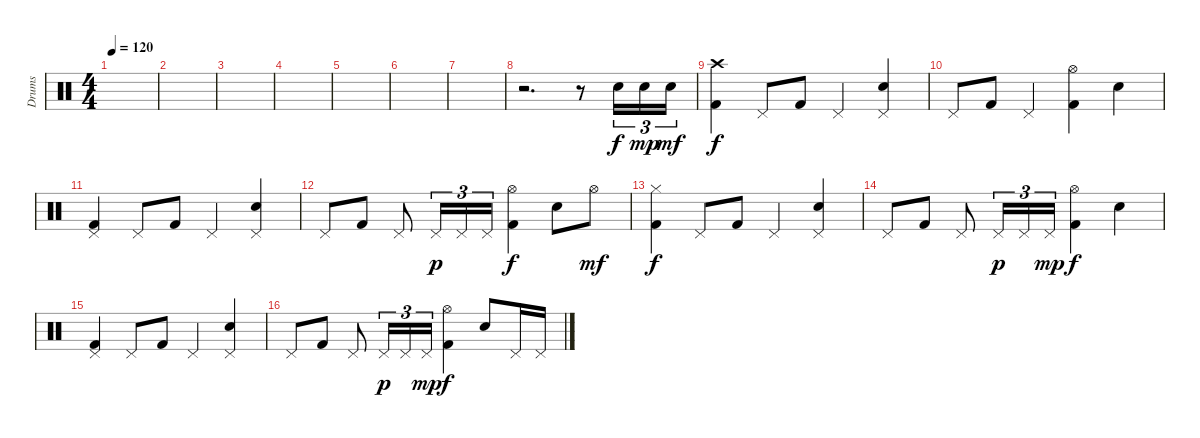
\track ("Drums" "Drums") {instrument percussion}
\staff {score}
\articulation defaults
\ts (4 4)
\tempo 120
\clef neutral
\ks c
|
|
|
|
|
|
|
r.2{d} r.8 "Snare (hit) 2".16{tu (3 2)} "Snare (hit) 2".16{tu (3 2) dy mp} "Snare (hit) 2".16{tu (3 2) dy mf} |
("Kick (hit) 2" "Crash high (hit)").4{dy f} "Pedal Hi-Hat (hit)".8 "Kick (hit) 2".8 "Pedal Hi-Hat (hit)".4 ("Snare (hit) 2" "Pedal Hi-Hat (hit)").4 |
"Pedal Hi-Hat (hit)".8 "Kick (hit) 2".8 "Pedal Hi-Hat (hit)".4 ("Kick (hit) 2" "Hi-Hat (open)").4 "Snare (hit) 2".4 |
("Kick (hit) 2" "Pedal Hi-Hat (hit)").4 "Pedal Hi-Hat (hit)".8 "Kick (hit) 2".8 "Pedal Hi-Hat (hit)".4 ("Snare (hit) 2" "Pedal Hi-Hat (hit)").4 |
"Pedal Hi-Hat (hit)".8 "Kick (hit) 2".8 "Pedal Hi-Hat (hit)".8 "Pedal Hi-Hat (hit)".16{tu (3 2) dy p} "Pedal Hi-Hat (hit)".16{tu (3 2)} "Pedal Hi-Hat (hit)".16{tu (3 2)} ("Kick (hit) 2" "Hi-Hat (open)").4{dy f} "Snare (hit) 2".8 "Hi-Hat (open)".8{dy mf} |
("Kick (hit) 2" "Hi-Hat (closed)").4{dy f} "Pedal Hi-Hat (hit)".8 "Kick (hit) 2".8 "Pedal Hi-Hat (hit)".4 ("Snare (hit) 2" "Pedal Hi-Hat (hit)").4 |
"Pedal Hi-Hat (hit)".8 "Kick (hit) 2".8 "Pedal Hi-Hat (hit)".8 "Pedal Hi-Hat (hit)".16{tu (3 2) dy p} "Pedal Hi-Hat (hit)".16{tu (3 2)} "Pedal Hi-Hat (hit)".16{tu (3 2) dy mp} ("Kick (hit) 2" "Hi-Hat (open)").4{dy f} "Snare (hit) 2".4 |
("Kick (hit) 2" "Pedal Hi-Hat (hit)").4 "Pedal Hi-Hat (hit)".8 "Kick (hit) 2".8 "Pedal Hi-Hat (hit)".4 ("Snare (hit) 2" "Pedal Hi-Hat (hit)").4 |
"Pedal Hi-Hat (hit)".8 "Kick (hit) 2".8 "Pedal Hi-Hat (hit)".8 "Pedal Hi-Hat (hit)".16{tu (3 2) dy p} "Pedal Hi-Hat (hit)".16{tu (3 2)} "Pedal Hi-Hat (hit)".16{tu (3 2) dy mp} ("Kick (hit) 2" "Hi-Hat (open)").4{dy f} "Snare (hit) 2".8 "Pedal Hi-Hat (hit)".16 "Pedal Hi-Hat (hit)".16
